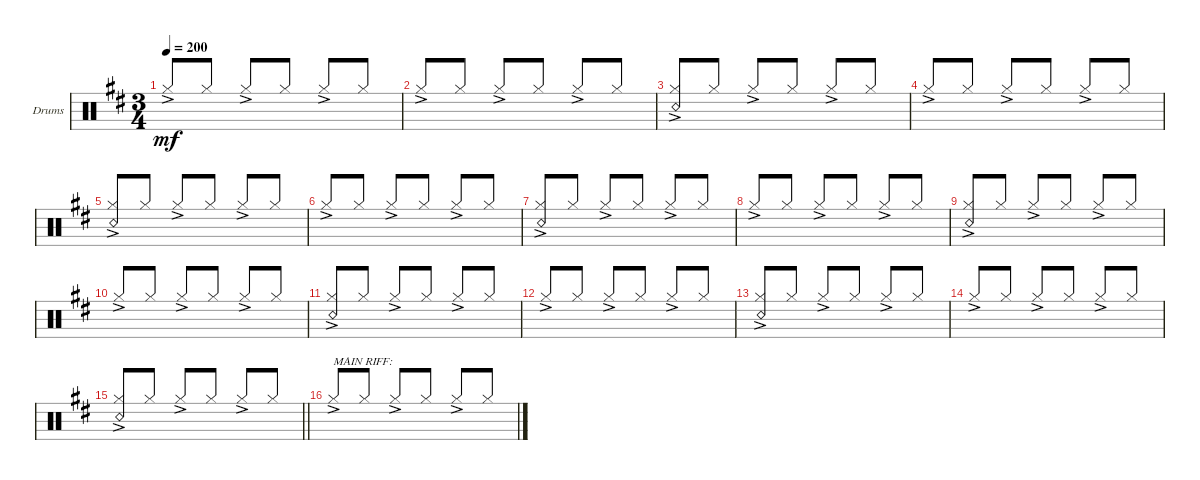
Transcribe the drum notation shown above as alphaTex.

\defaultSystemsLayout 4
\bracketExtendMode groupsimilarinstruments
\firstSystemTrackNameOrientation horizontal
\otherSystemsTrackNameOrientation horizontal
\track ("Drumkit" "Drums") {instrument percussion}
\staff {score}
\articulation defaults
\ts (3 4)
\tempo 200
\clef neutral
\ks d "Hi-Hat (closed)"{ac}.8{dy mf beam invert} "Hi-Hat (closed)".8 "Hi-Hat (closed)"{ac}.8{beam invert} "Hi-Hat (closed)".8 "Hi-Hat (closed)"{ac}.8{beam invert} "Hi-Hat (closed)".8
|
"Hi-Hat (closed)"{ac}.8{beam invert} "Hi-Hat (closed)".8 "Hi-Hat (closed)"{ac}.8{beam invert} "Hi-Hat (closed)".8 "Hi-Hat (closed)"{ac}.8{beam invert} "Hi-Hat (closed)".8 |
("Hi-Hat (closed)"{ac} "Snare (rim shot)").8{beam invert} "Hi-Hat (closed)".8 "Hi-Hat (closed)"{ac}.8{beam invert} "Hi-Hat (closed)".8 "Hi-Hat (closed)"{ac}.8{beam invert} "Hi-Hat (closed)".8 |
"Hi-Hat (closed)"{ac}.8{beam invert} "Hi-Hat (closed)".8 "Hi-Hat (closed)"{ac}.8{beam invert} "Hi-Hat (closed)".8 "Hi-Hat (closed)"{ac}.8{beam invert} "Hi-Hat (closed)".8 |
("Hi-Hat (closed)"{ac} "Snare (rim shot)").8{beam invert} "Hi-Hat (closed)".8 "Hi-Hat (closed)"{ac}.8{beam invert} "Hi-Hat (closed)".8 "Hi-Hat (closed)"{ac}.8{beam invert} "Hi-Hat (closed)".8 |
"Hi-Hat (closed)"{ac}.8{beam invert} "Hi-Hat (closed)".8 "Hi-Hat (closed)"{ac}.8{beam invert} "Hi-Hat (closed)".8 "Hi-Hat (closed)"{ac}.8{beam invert} "Hi-Hat (closed)".8 |
("Hi-Hat (closed)"{ac} "Snare (rim shot)").8{beam invert} "Hi-Hat (closed)".8 "Hi-Hat (closed)"{ac}.8{beam invert} "Hi-Hat (closed)".8 "Hi-Hat (closed)"{ac}.8{beam invert} "Hi-Hat (closed)".8 |
"Hi-Hat (closed)"{ac}.8{beam invert} "Hi-Hat (closed)".8 "Hi-Hat (closed)"{ac}.8{beam invert} "Hi-Hat (closed)".8 "Hi-Hat (closed)"{ac}.8{beam invert} "Hi-Hat (closed)".8 |
("Hi-Hat (closed)"{ac} "Snare (rim shot)").8{beam invert} "Hi-Hat (closed)".8 "Hi-Hat (closed)"{ac}.8{beam invert} "Hi-Hat (closed)".8 "Hi-Hat (closed)"{ac}.8{beam invert} "Hi-Hat (closed)".8 |
"Hi-Hat (closed)"{ac}.8{beam invert} "Hi-Hat (closed)".8 "Hi-Hat (closed)"{ac}.8{beam invert} "Hi-Hat (closed)".8 "Hi-Hat (closed)"{ac}.8{beam invert} "Hi-Hat (closed)".8 |
("Hi-Hat (closed)"{ac} "Snare (rim shot)").8{beam invert} "Hi-Hat (closed)".8 "Hi-Hat (closed)"{ac}.8{beam invert} "Hi-Hat (closed)".8 "Hi-Hat (closed)"{ac}.8{beam invert} "Hi-Hat (closed)".8 |
"Hi-Hat (closed)"{ac}.8{beam invert} "Hi-Hat (closed)".8 "Hi-Hat (closed)"{ac}.8{beam invert} "Hi-Hat (closed)".8 "Hi-Hat (closed)"{ac}.8{beam invert} "Hi-Hat (closed)".8 |
("Hi-Hat (closed)"{ac} "Snare (rim shot)").8{beam invert} "Hi-Hat (closed)".8 "Hi-Hat (closed)"{ac}.8{beam invert} "Hi-Hat (closed)".8 "Hi-Hat (closed)"{ac}.8{beam invert} "Hi-Hat (closed)".8 |
"Hi-Hat (closed)"{ac}.8{beam invert} "Hi-Hat (closed)".8 "Hi-Hat (closed)"{ac}.8{beam invert} "Hi-Hat (closed)".8 "Hi-Hat (closed)"{ac}.8{beam invert} "Hi-Hat (closed)".8 |
\barLineRight lightlight
("Hi-Hat (closed)"{ac} "Snare (rim shot)").8{beam invert} "Hi-Hat (closed)".8 "Hi-Hat (closed)"{ac}.8{beam invert} "Hi-Hat (closed)".8 "Hi-Hat (closed)"{ac}.8{beam invert} "Hi-Hat (closed)".8 |
"Hi-Hat (closed)"{ac}.8{txt "MAIN RIFF:" beam invert} "Hi-Hat (closed)".8 "Hi-Hat (closed)"{ac}.8{beam invert} "Hi-Hat (closed)".8 "Hi-Hat (closed)"{ac}.8{beam invert} "Hi-Hat (closed)".8
